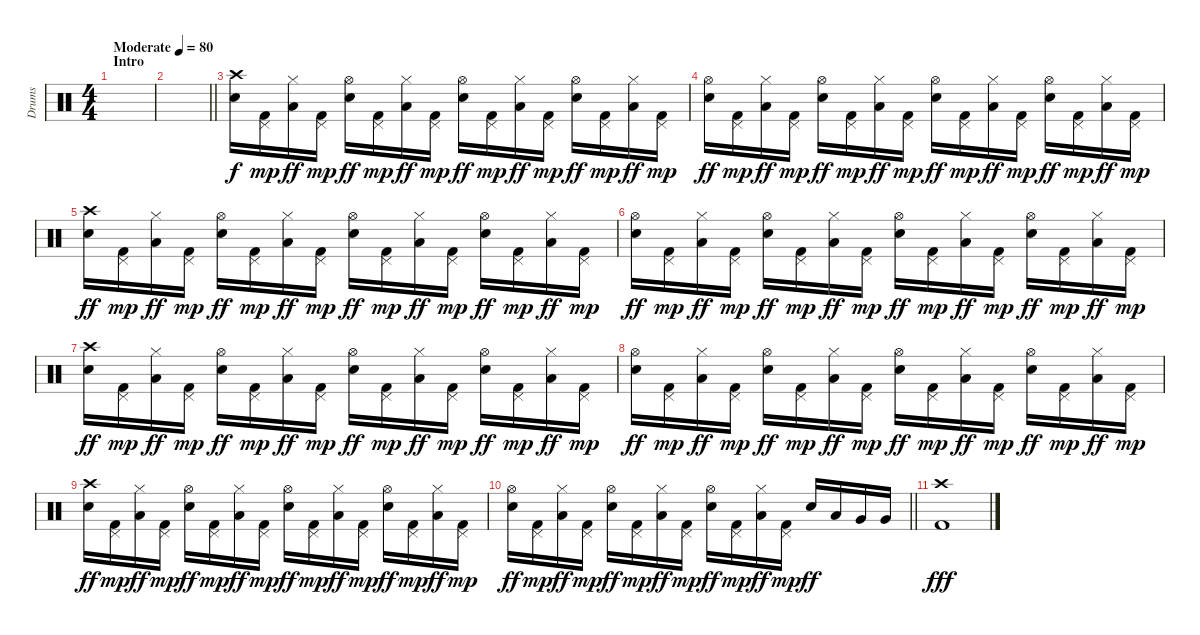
\track ("Drums" "Drums") {instrument percussion}
\staff {score}
\articulation defaults
\ts (4 4)
\section ("" "Intro")
\tempo (80 "Moderate")
\clef neutral
\ks c
|
\barLineRight lightlight
|
("Crash high (hit)" "Snare (hit) 2").16 ("Kick (hit) 2" "Pedal Hi-Hat (hit)").16{dy mp} ("Hi-Hat (closed)" "Low Tom (hit)").16{dy ff} ("Kick (hit) 2" "Pedal Hi-Hat (hit)").16{dy mp} ("Hi-Hat (open)" "Snare (hit) 2").16{dy ff} ("Kick (hit) 2" "Pedal Hi-Hat (hit)").16{dy mp} ("Hi-Hat (closed)" "Low Tom (hit)").16{dy ff} ("Kick (hit) 2" "Pedal Hi-Hat (hit)").16{dy mp} ("Hi-Hat (open)" "Snare (hit) 2").16{dy ff} ("Kick (hit) 2" "Pedal Hi-Hat (hit)").16{dy mp} ("Hi-Hat (closed)" "Low Tom (hit)").16{dy ff} ("Kick (hit) 2" "Pedal Hi-Hat (hit)").16{dy mp} ("Hi-Hat (open)" "Snare (hit) 2").16{dy ff} ("Kick (hit) 2" "Pedal Hi-Hat (hit)").16{dy mp} ("Hi-Hat (closed)" "Low Tom (hit)").16{dy ff} ("Kick (hit) 2" "Pedal Hi-Hat (hit)").16{dy mp} |
("Hi-Hat (open)" "Snare (hit) 2").16{dy ff} ("Kick (hit) 2" "Pedal Hi-Hat (hit)").16{dy mp} ("Hi-Hat (closed)" "Low Tom (hit)").16{dy ff} ("Kick (hit) 2" "Pedal Hi-Hat (hit)").16{dy mp} ("Hi-Hat (open)" "Snare (hit) 2").16{dy ff} ("Kick (hit) 2" "Pedal Hi-Hat (hit)").16{dy mp} ("Hi-Hat (closed)" "Low Tom (hit)").16{dy ff} ("Kick (hit) 2" "Pedal Hi-Hat (hit)").16{dy mp} ("Hi-Hat (open)" "Snare (hit) 2").16{dy ff} ("Kick (hit) 2" "Pedal Hi-Hat (hit)").16{dy mp} ("Hi-Hat (closed)" "Low Tom (hit)").16{dy ff} ("Kick (hit) 2" "Pedal Hi-Hat (hit)").16{dy mp} ("Hi-Hat (open)" "Snare (hit) 2").16{dy ff} ("Kick (hit) 2" "Pedal Hi-Hat (hit)").16{dy mp} ("Hi-Hat (closed)" "Low Tom (hit)").16{dy ff} ("Kick (hit) 2" "Pedal Hi-Hat (hit)").16{dy mp} |
("Crash high (hit)" "Snare (hit) 2").16{dy ff} ("Kick (hit) 2" "Pedal Hi-Hat (hit)").16{dy mp} ("Hi-Hat (closed)" "Low Tom (hit)").16{dy ff} ("Kick (hit) 2" "Pedal Hi-Hat (hit)").16{dy mp} ("Hi-Hat (open)" "Snare (hit) 2").16{dy ff} ("Kick (hit) 2" "Pedal Hi-Hat (hit)").16{dy mp} ("Hi-Hat (closed)" "Low Tom (hit)").16{dy ff} ("Kick (hit) 2" "Pedal Hi-Hat (hit)").16{dy mp} ("Hi-Hat (open)" "Snare (hit) 2").16{dy ff} ("Kick (hit) 2" "Pedal Hi-Hat (hit)").16{dy mp} ("Hi-Hat (closed)" "Low Tom (hit)").16{dy ff} ("Kick (hit) 2" "Pedal Hi-Hat (hit)").16{dy mp} ("Hi-Hat (open)" "Snare (hit) 2").16{dy ff} ("Kick (hit) 2" "Pedal Hi-Hat (hit)").16{dy mp} ("Hi-Hat (closed)" "Low Tom (hit)").16{dy ff} ("Kick (hit) 2" "Pedal Hi-Hat (hit)").16{dy mp} |
("Hi-Hat (open)" "Snare (hit) 2").16{dy ff} ("Kick (hit) 2" "Pedal Hi-Hat (hit)").16{dy mp} ("Hi-Hat (closed)" "Low Tom (hit)").16{dy ff} ("Kick (hit) 2" "Pedal Hi-Hat (hit)").16{dy mp} ("Hi-Hat (open)" "Snare (hit) 2").16{dy ff} ("Kick (hit) 2" "Pedal Hi-Hat (hit)").16{dy mp} ("Hi-Hat (closed)" "Low Tom (hit)").16{dy ff} ("Kick (hit) 2" "Pedal Hi-Hat (hit)").16{dy mp} ("Hi-Hat (open)" "Snare (hit) 2").16{dy ff} ("Kick (hit) 2" "Pedal Hi-Hat (hit)").16{dy mp} ("Hi-Hat (closed)" "Low Tom (hit)").16{dy ff} ("Kick (hit) 2" "Pedal Hi-Hat (hit)").16{dy mp} ("Hi-Hat (open)" "Snare (hit) 2").16{dy ff} ("Kick (hit) 2" "Pedal Hi-Hat (hit)").16{dy mp} ("Hi-Hat (closed)" "Low Tom (hit)").16{dy ff} ("Kick (hit) 2" "Pedal Hi-Hat (hit)").16{dy mp} |
("Crash high (hit)" "Snare (hit) 2").16{dy ff} ("Kick (hit) 2" "Pedal Hi-Hat (hit)").16{dy mp} ("Hi-Hat (closed)" "Low Tom (hit)").16{dy ff} ("Kick (hit) 2" "Pedal Hi-Hat (hit)").16{dy mp} ("Hi-Hat (open)" "Snare (hit) 2").16{dy ff} ("Kick (hit) 2" "Pedal Hi-Hat (hit)").16{dy mp} ("Hi-Hat (closed)" "Low Tom (hit)").16{dy ff} ("Kick (hit) 2" "Pedal Hi-Hat (hit)").16{dy mp} ("Hi-Hat (open)" "Snare (hit) 2").16{dy ff} ("Kick (hit) 2" "Pedal Hi-Hat (hit)").16{dy mp} ("Hi-Hat (closed)" "Low Tom (hit)").16{dy ff} ("Kick (hit) 2" "Pedal Hi-Hat (hit)").16{dy mp} ("Hi-Hat (open)" "Snare (hit) 2").16{dy ff} ("Kick (hit) 2" "Pedal Hi-Hat (hit)").16{dy mp} ("Hi-Hat (closed)" "Low Tom (hit)").16{dy ff} ("Kick (hit) 2" "Pedal Hi-Hat (hit)").16{dy mp} |
("Hi-Hat (open)" "Snare (hit) 2").16{dy ff} ("Kick (hit) 2" "Pedal Hi-Hat (hit)").16{dy mp} ("Hi-Hat (closed)" "Low Tom (hit)").16{dy ff} ("Kick (hit) 2" "Pedal Hi-Hat (hit)").16{dy mp} ("Hi-Hat (open)" "Snare (hit) 2").16{dy ff} ("Kick (hit) 2" "Pedal Hi-Hat (hit)").16{dy mp} ("Hi-Hat (closed)" "Low Tom (hit)").16{dy ff} ("Kick (hit) 2" "Pedal Hi-Hat (hit)").16{dy mp} ("Hi-Hat (open)" "Snare (hit) 2").16{dy ff} ("Kick (hit) 2" "Pedal Hi-Hat (hit)").16{dy mp} ("Hi-Hat (closed)" "Low Tom (hit)").16{dy ff} ("Kick (hit) 2" "Pedal Hi-Hat (hit)").16{dy mp} ("Hi-Hat (open)" "Snare (hit) 2").16{dy ff} ("Kick (hit) 2" "Pedal Hi-Hat (hit)").16{dy mp} ("Hi-Hat (closed)" "Low Tom (hit)").16{dy ff} ("Kick (hit) 2" "Pedal Hi-Hat (hit)").16{dy mp} |
("Crash high (hit)" "Snare (hit) 2").16{dy ff} ("Kick (hit) 2" "Pedal Hi-Hat (hit)").16{dy mp} ("Hi-Hat (closed)" "Low Tom (hit)").16{dy ff} ("Kick (hit) 2" "Pedal Hi-Hat (hit)").16{dy mp} ("Hi-Hat (open)" "Snare (hit) 2").16{dy ff} ("Kick (hit) 2" "Pedal Hi-Hat (hit)").16{dy mp} ("Hi-Hat (closed)" "Low Tom (hit)").16{dy ff} ("Kick (hit) 2" "Pedal Hi-Hat (hit)").16{dy mp} ("Hi-Hat (open)" "Snare (hit) 2").16{dy ff} ("Kick (hit) 2" "Pedal Hi-Hat (hit)").16{dy mp} ("Hi-Hat (closed)" "Low Tom (hit)").16{dy ff} ("Kick (hit) 2" "Pedal Hi-Hat (hit)").16{dy mp} ("Hi-Hat (open)" "Snare (hit) 2").16{dy ff} ("Kick (hit) 2" "Pedal Hi-Hat (hit)").16{dy mp} ("Hi-Hat (closed)" "Low Tom (hit)").16{dy ff} ("Kick (hit) 2" "Pedal Hi-Hat (hit)").16{dy mp} |
\barLineRight lightlight
("Hi-Hat (open)" "Snare (hit) 2").16{dy ff} ("Kick (hit) 2" "Pedal Hi-Hat (hit)").16{dy mp} ("Hi-Hat (closed)" "Low Tom (hit)").16{dy ff} ("Kick (hit) 2" "Pedal Hi-Hat (hit)").16{dy mp} ("Hi-Hat (open)" "Snare (hit) 2").16{dy ff} ("Kick (hit) 2" "Pedal Hi-Hat (hit)").16{dy mp} ("Hi-Hat (closed)" "Low Tom (hit)").16{dy ff} ("Kick (hit) 2" "Pedal Hi-Hat (hit)").16{dy mp} ("Hi-Hat (open)" "Snare (hit) 2").16{dy ff} ("Kick (hit) 2" "Pedal Hi-Hat (hit)").16{dy mp} ("Hi-Hat (closed)" "Low Tom (hit)").16{dy ff} ("Kick (hit) 2" "Pedal Hi-Hat (hit)").16{dy mp} "Snare (hit) 2".16{dy ff} "Low Tom (hit)".16 "Very Low Tom (hit)".16 "Very Low Tom (hit)".16 |
("Crash high (hit)" "Kick (hit) 2").1{dy fff}
